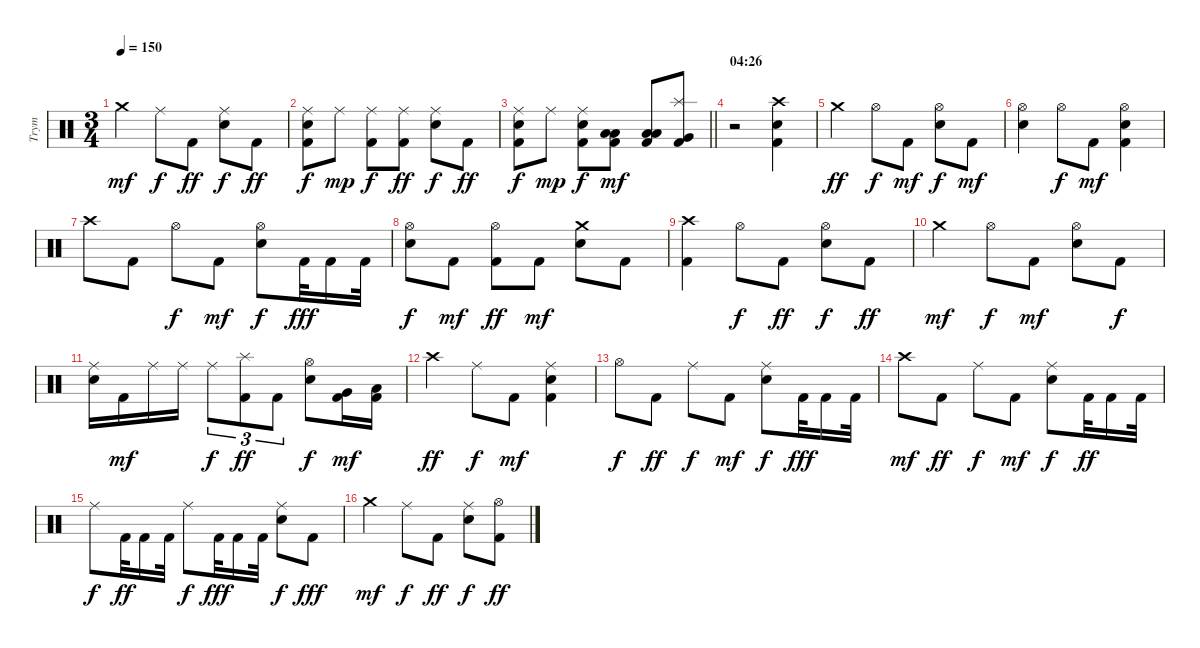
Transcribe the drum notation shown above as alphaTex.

\track ("Trym" "Trym") {instrument percussion}
\staff {score}
\articulation defaults
\ts (3 4)
\tempo 150
\clef neutral
\ks c "Crash medium (hit)".4{dy mf} "Ride (middle)".8{dy f} "Kick (hit) 2".8{dy ff}
("Snare (hit) 2" "Ride (middle)").8{dy f} "Kick (hit) 2".8{dy ff} |
("Snare (hit) 2" "Ride (middle)" "Kick (hit) 2").8{dy f} "Ride (middle)".8{dy mp} ("Ride (middle)" "Kick (hit) 2").8{dy f} ("Ride (middle)" "Kick (hit) 2").8{dy ff} ("Snare (hit) 2" "Ride (middle)").8{dy f} "Kick (hit) 2".8{dy ff} |
\barLineRight lightlight
("Snare (hit) 2" "Ride (middle)" "Kick (hit) 2").8{dy f} "Ride (middle)".8{dy mp} ("Snare (hit) 2" "Ride (middle)" "Kick (hit) 2").8{dy f} ("Low Tom (hit)" "Low Floor Tom (hit)" "Kick (hit) 2").8{dy mf} ("Low Tom (hit)" "Low Floor Tom (hit)" "Kick (hit) 2").8 ("Splash (hit)" "Very Low Tom (hit)" "Kick (hit) 2").8 |
\section ("" "04:26")
r.2 ("Crash high (hit)" "Snare (hit) 2" "Kick (hit) 2").4 |
"Crash medium (hit)".4{dy ff} "Hi-Hat (open)".8{dy f} "Kick (hit) 2".8{dy mf} ("Snare (hit) 2" "Hi-Hat (open)").8{dy f} "Kick (hit) 2".8{dy mf} |
("Snare (hit) 2" "Hi-Hat (open)").4 "Hi-Hat (open)".8{dy f} "Kick (hit) 2".8{dy mf} ("Snare (hit) 2" "Hi-Hat (open)" "Kick (hit) 2").4 |
"Crash high (hit)".8 "Kick (hit) 2".8 "Hi-Hat (open)".8{dy f} "Kick (hit) 2".8{dy mf} ("Snare (hit) 2" "Hi-Hat (open)").8{dy f} "Kick (hit) 2".32{dy fff} "Kick (hit) 2".16 "Kick (hit) 2".32 |
("Snare (hit) 2" "Hi-Hat (open)").8{dy f} "Kick (hit) 2".8{dy mf} ("Hi-Hat (open)" "Kick (hit) 2").8{dy ff} "Kick (hit) 2".8{dy mf} ("Snare (hit) 2" "Crash medium (hit)").8 "Kick (hit) 2".8 |
("Crash high (hit)" "Kick (hit) 2").4 "Hi-Hat (open)".8{dy f} "Kick (hit) 2".8{dy ff} ("Snare (hit) 2" "Hi-Hat (open)").8{dy f} "Kick (hit) 2".8{dy ff} |
"Crash medium (hit)".4{dy mf} "Hi-Hat (open)".8{dy f} "Kick (hit) 2".8{dy mf} ("Snare (hit) 2" "Hi-Hat (open)").8 "Kick (hit) 2".8{dy f} |
("Ride (middle)" "Snare (hit) 2").16 "Kick (hit) 2".16{dy mf} "Ride (middle)".16 "Ride (middle)".16 "Ride (middle)".8{tu (3 2) dy f} ("Splash (hit)" "Kick (hit) 2").8{tu (3 2) dy ff} "Kick (hit) 2".8{tu (3 2)} ("Snare (hit) 2" "Hi-Hat (open)").8{dy f} ("Very Low Tom (hit)" "Kick (hit) 2").16{dy mf} ("Low Tom (hit)" "Kick (hit) 2").16 |
"Crash high (hit)".4{dy ff} "Ride (middle)".8{dy f} "Kick (hit) 2".8{dy mf} ("Snare (hit) 2" "Ride (middle)" "Kick (hit) 2").4 |
"Hi-Hat (open)".8{dy f} "Kick (hit) 2".8{dy ff} "Ride (middle)".8{dy f} "Kick (hit) 2".8{dy mf} ("Snare (hit) 2" "Ride (middle)").8{dy f} "Kick (hit) 2".32{dy fff} "Kick (hit) 2".16 "Kick (hit) 2".32 |
"Crash high (hit)".8{dy mf} "Kick (hit) 2".8{dy ff} "Ride (middle)".8{dy f} "Kick (hit) 2".8{dy mf} ("Snare (hit) 2" "Ride (middle)").8{dy f} "Kick (hit) 2".32{dy ff} "Kick (hit) 2".16 "Kick (hit) 2".32 |
"Ride (middle)".8{dy f} "Kick (hit) 2".32{dy ff} "Kick (hit) 2".16 "Kick (hit) 2".32 "Ride (middle)".8{dy f} "Kick (hit) 2".32{dy fff} "Kick (hit) 2".16 "Kick (hit) 2".32 ("Snare (hit) 2" "Ride (middle)").8{dy f} "Kick (hit) 2".8{dy fff} |
"Crash medium (hit)".4{dy mf} "Ride (middle)".8{dy f} "Kick (hit) 2".8{dy ff} ("Snare (hit) 2" "Ride (middle)").8{dy f} ("Hi-Hat (open)" "Kick (hit) 2").8{dy ff}
